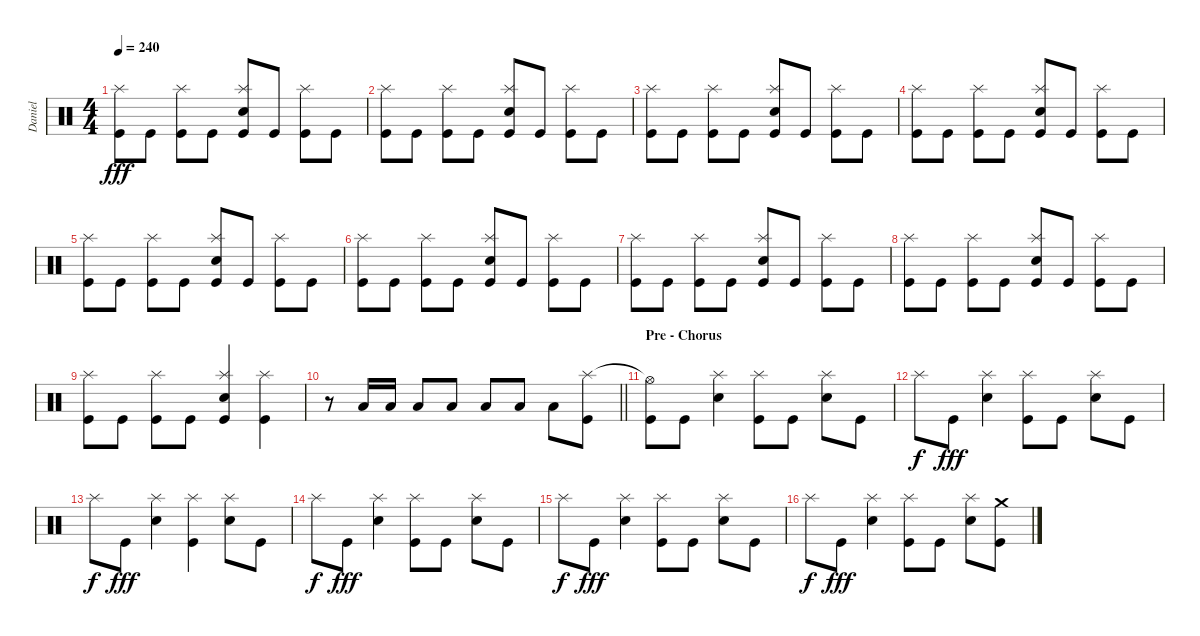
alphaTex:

\track ("Daniel" "Daniel") {instrument percussion}
\staff {score}
\articulation defaults
\ts (4 4)
\tempo 240
\clef neutral
\ks c
("Kick (hit)" "Splash (hit)").8{dy fff} "Kick (hit)".8 ("Kick (hit)" "Splash (hit)").8 "Kick (hit)".8 ("Kick (hit)" "Electric Snare (hit)" "Splash (hit)").8 "Kick (hit)".8 ("Kick (hit)" "Splash (hit)").8 "Kick (hit)".8 |
("Kick (hit)" "Splash (hit)").8 "Kick (hit)".8 ("Kick (hit)" "Splash (hit)").8 "Kick (hit)".8 ("Kick (hit)" "Electric Snare (hit)" "Splash (hit)").8 "Kick (hit)".8 ("Kick (hit)" "Splash (hit)").8 "Kick (hit)".8 |
("Kick (hit)" "Splash (hit)").8 "Kick (hit)".8 ("Kick (hit)" "Splash (hit)").8 "Kick (hit)".8 ("Kick (hit)" "Electric Snare (hit)" "Splash (hit)").8 "Kick (hit)".8 ("Kick (hit)" "Splash (hit)").8 "Kick (hit)".8 |
("Kick (hit)" "Splash (hit)").8 "Kick (hit)".8 ("Kick (hit)" "Splash (hit)").8 "Kick (hit)".8 ("Kick (hit)" "Electric Snare (hit)" "Splash (hit)").8 "Kick (hit)".8 ("Kick (hit)" "Splash (hit)").8 "Kick (hit)".8 |
("Kick (hit)" "Splash (hit)").8 "Kick (hit)".8 ("Kick (hit)" "Splash (hit)").8 "Kick (hit)".8 ("Kick (hit)" "Electric Snare (hit)" "Splash (hit)").8 "Kick (hit)".8 ("Kick (hit)" "Splash (hit)").8 "Kick (hit)".8 |
("Kick (hit)" "Splash (hit)").8 "Kick (hit)".8 ("Kick (hit)" "Splash (hit)").8 "Kick (hit)".8 ("Kick (hit)" "Electric Snare (hit)" "Splash (hit)").8 "Kick (hit)".8 ("Kick (hit)" "Splash (hit)").8 "Kick (hit)".8 |
("Kick (hit)" "Splash (hit)").8 "Kick (hit)".8 ("Kick (hit)" "Splash (hit)").8 "Kick (hit)".8 ("Kick (hit)" "Electric Snare (hit)" "Splash (hit)").8 "Kick (hit)".8 ("Kick (hit)" "Splash (hit)").8 "Kick (hit)".8 |
("Kick (hit)" "Splash (hit)").8 "Kick (hit)".8 ("Kick (hit)" "Splash (hit)").8 "Kick (hit)".8 ("Kick (hit)" "Electric Snare (hit)" "Splash (hit)").8 "Kick (hit)".8 ("Kick (hit)" "Splash (hit)").8 "Kick (hit)".8 |
("Kick (hit)" "Splash (hit)").8 "Kick (hit)".8 ("Kick (hit)" "Splash (hit)").8 "Kick (hit)".8 ("Kick (hit)" "Electric Snare (hit)" "Splash (hit)").4 ("Kick (hit)" "Splash (hit)").4 |
\barLineRight lightlight
r.8 "Low Tom (hit)".16 "Low Tom (hit)".16 "Low Tom (hit)".8 "Low Tom (hit)".8 "Low Tom (hit)".8 "Low Floor Tom (hit)".8 "Low Floor Tom (hit)".8 ("Kick (hit)" "Splash (hit)").8 |
\section ("" "Pre - Chorus")
("Kick (hit)" "Hi-Hat (open)"{t}).8 "Kick (hit)".8 ("Electric Snare (hit)" "Splash (hit)").4 ("Kick (hit)" "Splash (hit)").8 "Kick (hit)".8 ("Electric Snare (hit)" "Splash (hit)").8 "Kick (hit)".8 |
"Splash (hit)".8{dy f} "Kick (hit)".8{dy fff} ("Electric Snare (hit)" "Splash (hit)").4 ("Kick (hit)" "Splash (hit)").8 "Kick (hit)".8 ("Electric Snare (hit)" "Splash (hit)").8 "Kick (hit)".8 |
"Splash (hit)".8{dy f} "Kick (hit)".8{dy fff} ("Electric Snare (hit)" "Splash (hit)").4 ("Kick (hit)" "Splash (hit)").4 ("Electric Snare (hit)" "Splash (hit)").8 "Kick (hit)".8 |
"Splash (hit)".8{dy f} "Kick (hit)".8{dy fff} ("Electric Snare (hit)" "Splash (hit)").4 ("Kick (hit)" "Splash (hit)").8 "Kick (hit)".8 ("Electric Snare (hit)" "Splash (hit)").8 "Kick (hit)".8 |
"Splash (hit)".8{dy f} "Kick (hit)".8{dy fff} ("Electric Snare (hit)" "Splash (hit)").4 ("Kick (hit)" "Splash (hit)").8 "Kick (hit)".8 ("Electric Snare (hit)" "Splash (hit)").8 "Kick (hit)".8 |
"Splash (hit)".8{dy f} "Kick (hit)".8{dy fff} ("Electric Snare (hit)" "Splash (hit)").4 ("Kick (hit)" "Splash (hit)").8 "Kick (hit)".8 ("Electric Snare (hit)" "Splash (hit)").8 ("Kick (hit)" "Crash medium (hit)").8
